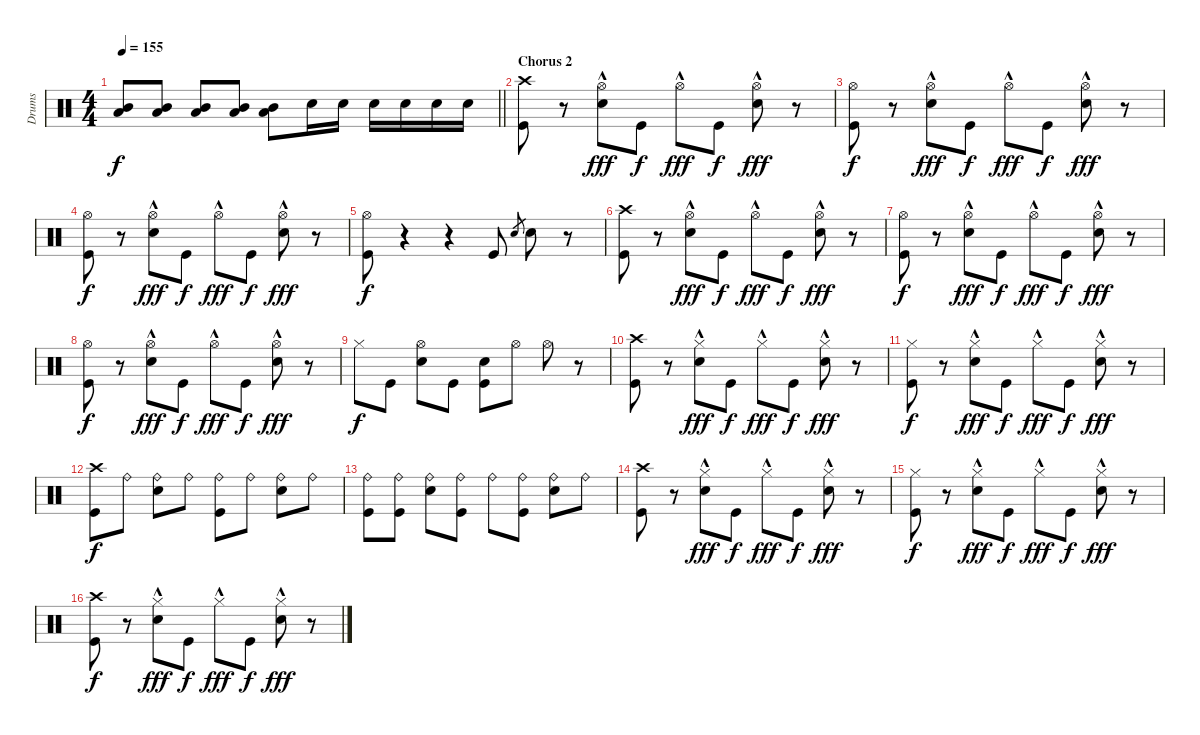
\track ("Drums" "Drums") {instrument percussion}
\staff {score}
\articulation defaults
\ts (4 4)
\tempo 155
\clef neutral
\barLineRight lightlight
\ks c
("Mid Tom (hit)" "Low Floor Tom (hit)").8{dy f} ("Mid Tom (hit)" "Low Floor Tom (hit)").8 ("Mid Tom (hit)" "Low Floor Tom (hit)").8 ("Mid Tom (hit)" "Low Floor Tom (hit)").8 ("Mid Tom (hit)" "Low Floor Tom (hit)").8 "Snare (hit) 2".16 "Snare (hit) 2".16 "Snare (hit) 2".16 "Snare (hit) 2".16 "Snare (hit) 2".16 "Snare (hit) 2".16 |
\section ("" "Chorus 2")
("Crash high (hit)" "Kick (hit)").8 r.8 ("Hi-Hat (open)"{hac} "Snare (hit) 2").8{dy fff} "Kick (hit)".8{dy f} "Hi-Hat (open)"{hac}.8{dy fff} "Kick (hit)".8{dy f} ("Hi-Hat (open)"{hac} "Snare (hit) 2").8{dy fff} r.8 |
("Hi-Hat (open)" "Kick (hit)").8{dy f} r.8 ("Hi-Hat (open)"{hac} "Snare (hit) 2").8{dy fff} "Kick (hit)".8{dy f} "Hi-Hat (open)"{hac}.8{dy fff} "Kick (hit)".8{dy f} ("Hi-Hat (open)"{hac} "Snare (hit) 2").8{dy fff} r.8 |
("Hi-Hat (open)" "Kick (hit)").8{dy f} r.8 ("Hi-Hat (open)"{hac} "Snare (hit) 2").8{dy fff} "Kick (hit)".8{dy f} "Hi-Hat (open)"{hac}.8{dy fff} "Kick (hit)".8{dy f} ("Hi-Hat (open)"{hac} "Snare (hit) 2").8{dy fff} r.8 |
("Hi-Hat (open)" "Kick (hit)").8{dy f} r.4 r.4 "Kick (hit)".8 "Snare (hit) 2".8{gr} "Snare (hit) 2".8 r.8 |
("Crash high (hit)" "Kick (hit)").8 r.8 ("Hi-Hat (open)"{hac} "Snare (hit) 2").8{dy fff} "Kick (hit)".8{dy f} "Hi-Hat (open)"{hac}.8{dy fff} "Kick (hit)".8{dy f} ("Hi-Hat (open)"{hac} "Snare (hit) 2").8{dy fff} r.8 |
("Hi-Hat (open)" "Kick (hit)").8{dy f} r.8 ("Hi-Hat (open)"{hac} "Snare (hit) 2").8{dy fff} "Kick (hit)".8{dy f} "Hi-Hat (open)"{hac}.8{dy fff} "Kick (hit)".8{dy f} ("Hi-Hat (open)"{hac} "Snare (hit) 2").8{dy fff} r.8 |
("Hi-Hat (open)" "Kick (hit)").8{dy f} r.8 ("Hi-Hat (open)"{hac} "Snare (hit) 2").8{dy fff} "Kick (hit)".8{dy f} "Hi-Hat (open)"{hac}.8{dy fff} "Kick (hit)".8{dy f} ("Hi-Hat (open)"{hac} "Snare (hit) 2").8{dy fff} r.8 |
"Hi-Hat (closed)".8{dy f} "Kick (hit)".8 ("Hi-Hat (open)" "Snare (hit) 2").8 "Kick (hit)".8 ("Snare (hit) 2" "Kick (hit)").8 "Hi-Hat (open)".8 "Hi-Hat (open)".8 r.8 |
("Crash high (hit)" "Kick (hit)").8 r.8 ("Hi-Hat (closed)"{hac} "Snare (hit) 2").8{dy fff} "Kick (hit)".8{dy f} "Hi-Hat (closed)"{hac}.8{dy fff} "Kick (hit)".8{dy f} ("Hi-Hat (closed)"{hac} "Snare (hit) 2").8{dy fff} r.8 |
("Hi-Hat (closed)" "Kick (hit)").8{dy f} r.8 ("Hi-Hat (closed)"{hac} "Snare (hit) 2").8{dy fff} "Kick (hit)".8{dy f} "Hi-Hat (closed)"{hac}.8{dy fff} "Kick (hit)".8{dy f} ("Hi-Hat (closed)"{hac} "Snare (hit) 2").8{dy fff} r.8 |
("Crash high (hit)" "Kick (hit)").8{dy f} "Ride (bell)".8 ("Ride (bell)" "Snare (hit) 2").8 "Ride (bell)".8 ("Ride (bell)" "Kick (hit)").8 "Ride (bell)".8 ("Ride (bell)" "Snare (hit) 2").8 "Ride (bell)".8 |
("Ride (bell)" "Kick (hit)").8 ("Ride (bell)" "Kick (hit)").8 ("Ride (bell)" "Snare (hit) 2").8 ("Ride (bell)" "Kick (hit)").8 "Ride (bell)".8 ("Ride (bell)" "Kick (hit)").8 ("Ride (bell)" "Snare (hit) 2").8 "Ride (bell)".8 |
("Crash high (hit)" "Kick (hit)").8 r.8 ("Hi-Hat (closed)"{hac} "Snare (hit) 2").8{dy fff} "Kick (hit)".8{dy f} "Hi-Hat (closed)"{hac}.8{dy fff} "Kick (hit)".8{dy f} ("Hi-Hat (closed)"{hac} "Snare (hit) 2").8{dy fff} r.8 |
("Hi-Hat (closed)" "Kick (hit)").8{dy f} r.8 ("Hi-Hat (closed)"{hac} "Snare (hit) 2").8{dy fff} "Kick (hit)".8{dy f} "Hi-Hat (closed)"{hac}.8{dy fff} "Kick (hit)".8{dy f} ("Hi-Hat (closed)"{hac} "Snare (hit) 2").8{dy fff} r.8 |
("Crash high (hit)" "Kick (hit)").8{dy f} r.8 ("Hi-Hat (closed)"{hac} "Snare (hit) 2").8{dy fff} "Kick (hit)".8{dy f} "Hi-Hat (closed)"{hac}.8{dy fff} "Kick (hit)".8{dy f} ("Hi-Hat (closed)"{hac} "Snare (hit) 2").8{dy fff} r.8
